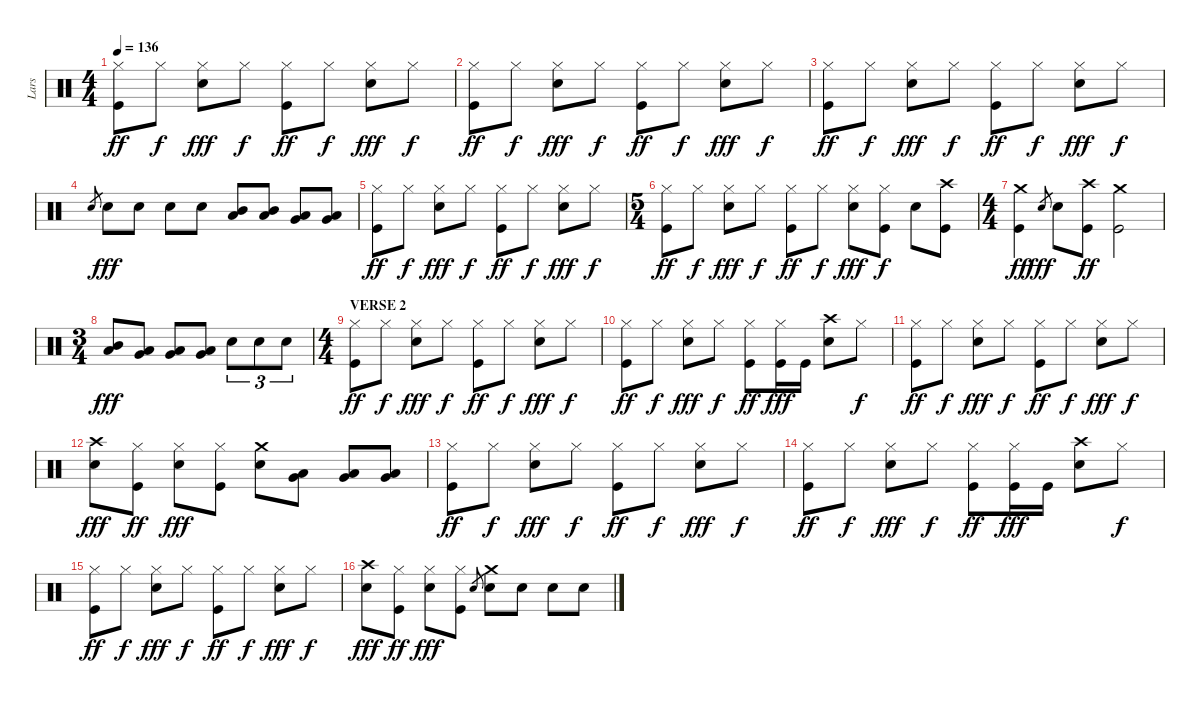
\track ("Lars" "Lars") {instrument percussion}
\staff {score}
\articulation defaults
\ts (4 4)
\tempo 136
\clef neutral
\ks c
("Hi-Hat (closed)" "Kick (hit)").8{dy ff} "Hi-Hat (closed)".8{dy f} ("Hi-Hat (closed)" "Electric Snare (hit)").8{dy fff} "Hi-Hat (closed)".8{dy f} ("Hi-Hat (closed)" "Kick (hit)").8{dy ff} "Hi-Hat (closed)".8{dy f} ("Hi-Hat (closed)" "Electric Snare (hit)").8{dy fff} "Hi-Hat (closed)".8{dy f} |
("Hi-Hat (closed)" "Kick (hit)").8{dy ff} "Hi-Hat (closed)".8{dy f} ("Hi-Hat (closed)" "Electric Snare (hit)").8{dy fff} "Hi-Hat (closed)".8{dy f} ("Hi-Hat (closed)" "Kick (hit)").8{dy ff} "Hi-Hat (closed)".8{dy f} ("Hi-Hat (closed)" "Electric Snare (hit)").8{dy fff} "Hi-Hat (closed)".8{dy f} |
("Hi-Hat (closed)" "Kick (hit)").8{dy ff} "Hi-Hat (closed)".8{dy f} ("Hi-Hat (closed)" "Electric Snare (hit)").8{dy fff} "Hi-Hat (closed)".8{dy f} ("Hi-Hat (closed)" "Kick (hit)").8{dy ff} "Hi-Hat (closed)".8{dy f} ("Hi-Hat (closed)" "Electric Snare (hit)").8{dy fff} "Hi-Hat (closed)".8{dy f} |
"Electric Snare (hit)".8{gr} "Electric Snare (hit)".8{dy fff} "Electric Snare (hit)".8 "Electric Snare (hit)".8 "Electric Snare (hit)".8 ("Mid Tom (hit)" "Low Tom (hit)").8 ("Mid Tom (hit)" "Low Tom (hit)").8 ("Low Tom (hit)" "Very Low Tom (hit)").8 ("Low Tom (hit)" "Very Low Tom (hit)").8 |
("Hi-Hat (closed)" "Kick (hit)").8{dy ff} "Hi-Hat (closed)".8{dy f} ("Hi-Hat (closed)" "Electric Snare (hit)").8{dy fff} "Hi-Hat (closed)".8{dy f} ("Hi-Hat (closed)" "Kick (hit)").8{dy ff} "Hi-Hat (closed)".8{dy f} ("Hi-Hat (closed)" "Electric Snare (hit)").8{dy fff} "Hi-Hat (closed)".8{dy f} |
\ts (5 4)
("Hi-Hat (closed)" "Kick (hit)").8{dy ff} "Hi-Hat (closed)".8{dy f} ("Hi-Hat (closed)" "Electric Snare (hit)").8{dy fff} "Hi-Hat (closed)".8{dy f} ("Hi-Hat (closed)" "Kick (hit)").8{dy ff} "Hi-Hat (closed)".8{dy f} ("Hi-Hat (closed)" "Electric Snare (hit)").8{dy fff} ("Hi-Hat (closed)" "Kick (hit)").8{dy f} "Electric Snare (hit)".8 ("Crash high (hit)" "Kick (hit)").8 |
\ts (4 4)
("Crash medium (hit)" "Kick (hit)").4{dy ff} "Electric Snare (hit)".8{gr dy fff} "Electric Snare (hit)".8 ("Crash high (hit)" "Kick (hit)").8{dy ff} ("Crash medium (hit)" "Kick (hit)").2 |
\ts (3 4)
("Mid Tom (hit)" "Low Tom (hit)").8{dy fff} ("Low Tom (hit)" "Very Low Tom (hit)").8 ("Low Tom (hit)" "Very Low Tom (hit)").8 ("Very Low Tom (hit)" "Low Floor Tom (hit)").8 "Electric Snare (hit)".8{tu (3 2)} "Electric Snare (hit)".8{tu (3 2)} "Electric Snare (hit)".8{tu (3 2)} |
\ts (4 4)
\section ("" "VERSE 2")
("Hi-Hat (closed)" "Kick (hit)").8{dy ff} "Hi-Hat (closed)".8{dy f} ("Hi-Hat (closed)" "Electric Snare (hit)").8{dy fff} "Hi-Hat (closed)".8{dy f} ("Hi-Hat (closed)" "Kick (hit)").8{dy ff} "Hi-Hat (closed)".8{dy f} ("Hi-Hat (closed)" "Electric Snare (hit)").8{dy fff} "Hi-Hat (closed)".8{dy f} |
("Hi-Hat (closed)" "Kick (hit)").8{dy ff} "Hi-Hat (closed)".8{dy f} ("Hi-Hat (closed)" "Electric Snare (hit)").8{dy fff} "Hi-Hat (closed)".8{dy f} ("Hi-Hat (closed)" "Kick (hit)").8{dy ff} ("Hi-Hat (closed)" "Kick (hit)").16{dy fff} "Kick (hit)".16 ("Crash high (hit)" "Electric Snare (hit)").8 "Hi-Hat (closed)".8{dy f} |
("Hi-Hat (closed)" "Kick (hit)").8{dy ff} "Hi-Hat (closed)".8{dy f} ("Hi-Hat (closed)" "Electric Snare (hit)").8{dy fff} "Hi-Hat (closed)".8{dy f} ("Hi-Hat (closed)" "Kick (hit)").8{dy ff} "Hi-Hat (closed)".8{dy f} ("Hi-Hat (closed)" "Electric Snare (hit)").8{dy fff} "Hi-Hat (closed)".8{dy f} |
("Crash high (hit)" "Electric Snare (hit)").8{dy fff} ("Hi-Hat (closed)" "Kick (hit)").8{dy ff} ("Hi-Hat (closed)" "Electric Snare (hit)").8{dy fff} ("Hi-Hat (closed)" "Kick (hit)").8 ("Crash medium (hit)" "Electric Snare (hit)").8 ("Low Tom (hit)" "Very Low Tom (hit)").8 ("Low Tom (hit)" "Very Low Tom (hit)").8 ("Low Tom (hit)" "Very Low Tom (hit)").8 |
("Hi-Hat (closed)" "Kick (hit)").8{dy ff} "Hi-Hat (closed)".8{dy f} ("Hi-Hat (closed)" "Electric Snare (hit)").8{dy fff} "Hi-Hat (closed)".8{dy f} ("Hi-Hat (closed)" "Kick (hit)").8{dy ff} "Hi-Hat (closed)".8{dy f} ("Hi-Hat (closed)" "Electric Snare (hit)").8{dy fff} "Hi-Hat (closed)".8{dy f} |
("Hi-Hat (closed)" "Kick (hit)").8{dy ff} "Hi-Hat (closed)".8{dy f} ("Hi-Hat (closed)" "Electric Snare (hit)").8{dy fff} "Hi-Hat (closed)".8{dy f} ("Hi-Hat (closed)" "Kick (hit)").8{dy ff} ("Hi-Hat (closed)" "Kick (hit)").16{dy fff} "Kick (hit)".16 ("Crash high (hit)" "Electric Snare (hit)").8 "Hi-Hat (closed)".8{dy f} |
("Hi-Hat (closed)" "Kick (hit)").8{dy ff} "Hi-Hat (closed)".8{dy f} ("Hi-Hat (closed)" "Electric Snare (hit)").8{dy fff} "Hi-Hat (closed)".8{dy f} ("Hi-Hat (closed)" "Kick (hit)").8{dy ff} "Hi-Hat (closed)".8{dy f} ("Hi-Hat (closed)" "Electric Snare (hit)").8{dy fff} "Hi-Hat (closed)".8{dy f} |
("Crash high (hit)" "Electric Snare (hit)").8{dy fff} ("Hi-Hat (closed)" "Kick (hit)").8{dy ff} ("Hi-Hat (closed)" "Electric Snare (hit)").8{dy fff} ("Hi-Hat (closed)" "Kick (hit)").8 "Electric Snare (hit)".8{gr} ("Crash medium (hit)" "Electric Snare (hit)").8 "Electric Snare (hit)".8 "Electric Snare (hit)".8 "Electric Snare (hit)".8
